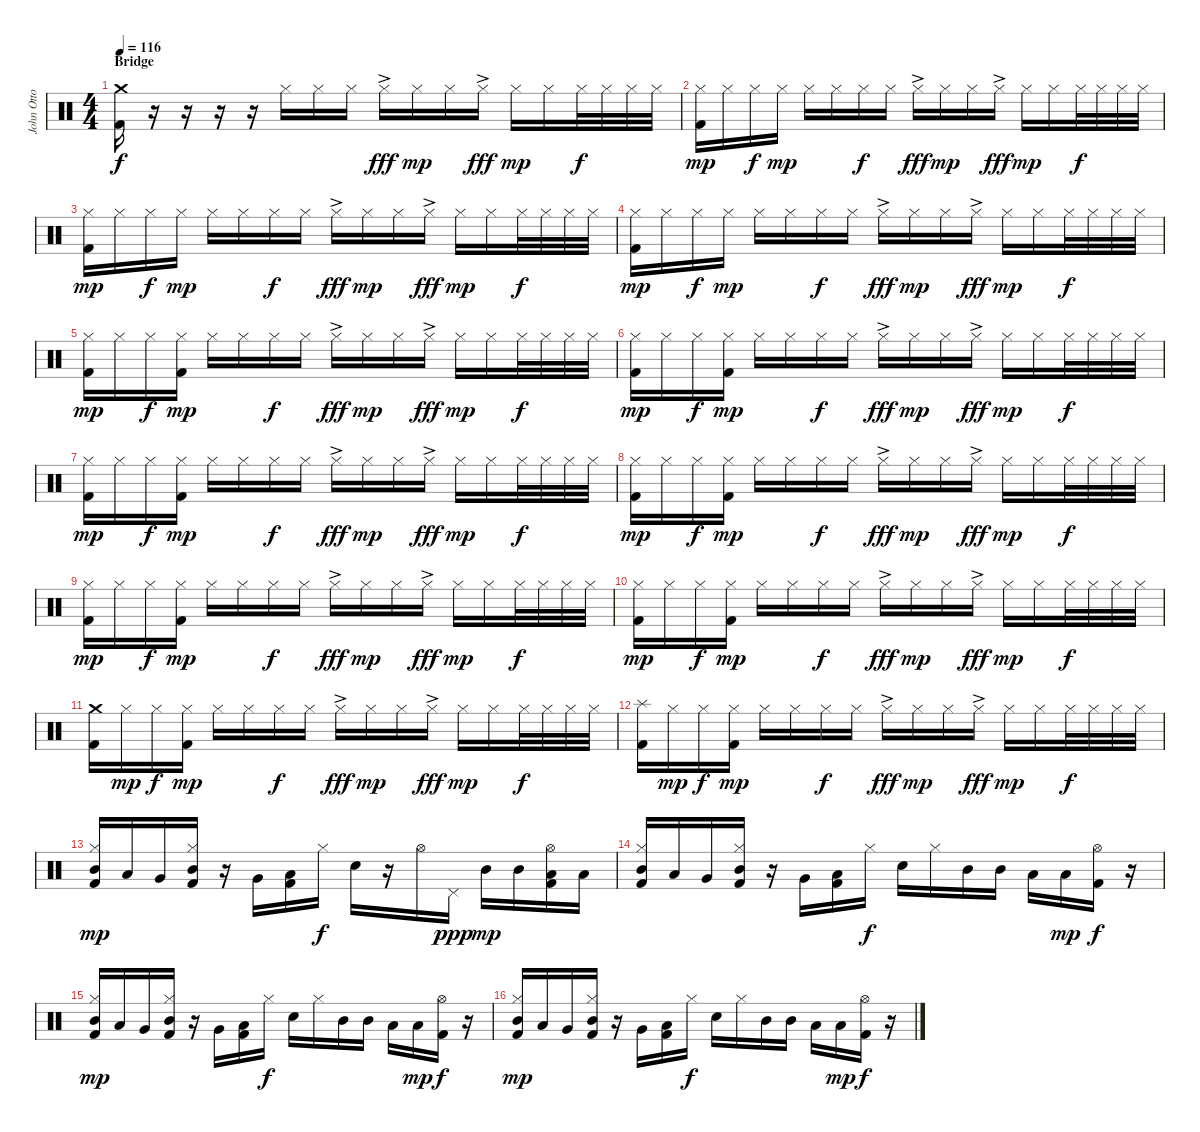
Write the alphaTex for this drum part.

\track ("John Otto - Drums" "John Otto ") {instrument percussion}
\staff {score}
\articulation defaults
\ts (4 4)
\section ("" "Bridge")
\tempo 116
\clef neutral
\ks c
("Crash medium (hit)" "Kick (hit) 2").16{dy f} r.16 r.16 r.16 r.16 "Hi-Hat (closed)".16 "Hi-Hat (closed)".16 "Hi-Hat (closed)".16 "Hi-Hat (closed)"{ac}.16{dy fff} "Hi-Hat (closed)".16{dy mp} "Hi-Hat (closed)".16 "Hi-Hat (closed)"{ac}.16{dy fff} "Hi-Hat (closed)".16{dy mp} "Hi-Hat (closed)".16 "Hi-Hat (closed)".32{dy f} "Hi-Hat (closed)".32 "Hi-Hat (closed)".32 "Hi-Hat (closed)".32 |
("Hi-Hat (closed)" "Kick (hit) 2").16{dy mp} "Hi-Hat (closed)".16 "Hi-Hat (closed)".16{dy f} "Hi-Hat (closed)".16{dy mp} "Hi-Hat (closed)".16 "Hi-Hat (closed)".16 "Hi-Hat (closed)".16{dy f} "Hi-Hat (closed)".16 "Hi-Hat (closed)"{ac}.16{dy fff} "Hi-Hat (closed)".16{dy mp} "Hi-Hat (closed)".16 "Hi-Hat (closed)"{ac}.16{dy fff} "Hi-Hat (closed)".16{dy mp} "Hi-Hat (closed)".16 "Hi-Hat (closed)".32{dy f} "Hi-Hat (closed)".32 "Hi-Hat (closed)".32 "Hi-Hat (closed)".32 |
("Hi-Hat (closed)" "Kick (hit) 2").16{dy mp} "Hi-Hat (closed)".16 "Hi-Hat (closed)".16{dy f} "Hi-Hat (closed)".16{dy mp} "Hi-Hat (closed)".16 "Hi-Hat (closed)".16 "Hi-Hat (closed)".16{dy f} "Hi-Hat (closed)".16 "Hi-Hat (closed)"{ac}.16{dy fff} "Hi-Hat (closed)".16{dy mp} "Hi-Hat (closed)".16 "Hi-Hat (closed)"{ac}.16{dy fff} "Hi-Hat (closed)".16{dy mp} "Hi-Hat (closed)".16 "Hi-Hat (closed)".32{dy f} "Hi-Hat (closed)".32 "Hi-Hat (closed)".32 "Hi-Hat (closed)".32 |
("Hi-Hat (closed)" "Kick (hit) 2").16{dy mp} "Hi-Hat (closed)".16 "Hi-Hat (closed)".16{dy f} "Hi-Hat (closed)".16{dy mp} "Hi-Hat (closed)".16 "Hi-Hat (closed)".16 "Hi-Hat (closed)".16{dy f} "Hi-Hat (closed)".16 "Hi-Hat (closed)"{ac}.16{dy fff} "Hi-Hat (closed)".16{dy mp} "Hi-Hat (closed)".16 "Hi-Hat (closed)"{ac}.16{dy fff} "Hi-Hat (closed)".16{dy mp} "Hi-Hat (closed)".16 "Hi-Hat (closed)".32{dy f} "Hi-Hat (closed)".32 "Hi-Hat (closed)".32 "Hi-Hat (closed)".32 |
("Hi-Hat (closed)" "Kick (hit) 2").16{dy mp} "Hi-Hat (closed)".16 "Hi-Hat (closed)".16{dy f} ("Hi-Hat (closed)" "Kick (hit) 2").16{dy mp} "Hi-Hat (closed)".16 "Hi-Hat (closed)".16 "Hi-Hat (closed)".16{dy f} "Hi-Hat (closed)".16 "Hi-Hat (closed)"{ac}.16{dy fff} "Hi-Hat (closed)".16{dy mp} "Hi-Hat (closed)".16 "Hi-Hat (closed)"{ac}.16{dy fff} "Hi-Hat (closed)".16{dy mp} "Hi-Hat (closed)".16 "Hi-Hat (closed)".32{dy f} "Hi-Hat (closed)".32 "Hi-Hat (closed)".32 "Hi-Hat (closed)".32 |
("Hi-Hat (closed)" "Kick (hit) 2").16{dy mp} "Hi-Hat (closed)".16 "Hi-Hat (closed)".16{dy f} ("Hi-Hat (closed)" "Kick (hit) 2").16{dy mp} "Hi-Hat (closed)".16 "Hi-Hat (closed)".16 "Hi-Hat (closed)".16{dy f} "Hi-Hat (closed)".16 "Hi-Hat (closed)"{ac}.16{dy fff} "Hi-Hat (closed)".16{dy mp} "Hi-Hat (closed)".16 "Hi-Hat (closed)"{ac}.16{dy fff} "Hi-Hat (closed)".16{dy mp} "Hi-Hat (closed)".16 "Hi-Hat (closed)".32{dy f} "Hi-Hat (closed)".32 "Hi-Hat (closed)".32 "Hi-Hat (closed)".32 |
("Hi-Hat (closed)" "Kick (hit) 2").16{dy mp} "Hi-Hat (closed)".16 "Hi-Hat (closed)".16{dy f} ("Hi-Hat (closed)" "Kick (hit) 2").16{dy mp} "Hi-Hat (closed)".16 "Hi-Hat (closed)".16 "Hi-Hat (closed)".16{dy f} "Hi-Hat (closed)".16 "Hi-Hat (closed)"{ac}.16{dy fff} "Hi-Hat (closed)".16{dy mp} "Hi-Hat (closed)".16 "Hi-Hat (closed)"{ac}.16{dy fff} "Hi-Hat (closed)".16{dy mp} "Hi-Hat (closed)".16 "Hi-Hat (closed)".32{dy f} "Hi-Hat (closed)".32 "Hi-Hat (closed)".32 "Hi-Hat (closed)".32 |
("Hi-Hat (closed)" "Kick (hit) 2").16{dy mp} "Hi-Hat (closed)".16 "Hi-Hat (closed)".16{dy f} ("Hi-Hat (closed)" "Kick (hit) 2").16{dy mp} "Hi-Hat (closed)".16 "Hi-Hat (closed)".16 "Hi-Hat (closed)".16{dy f} "Hi-Hat (closed)".16 "Hi-Hat (closed)"{ac}.16{dy fff} "Hi-Hat (closed)".16{dy mp} "Hi-Hat (closed)".16 "Hi-Hat (closed)"{ac}.16{dy fff} "Hi-Hat (closed)".16{dy mp} "Hi-Hat (closed)".16 "Hi-Hat (closed)".32{dy f} "Hi-Hat (closed)".32 "Hi-Hat (closed)".32 "Hi-Hat (closed)".32 |
("Hi-Hat (closed)" "Kick (hit) 2").16{dy mp} "Hi-Hat (closed)".16 "Hi-Hat (closed)".16{dy f} ("Hi-Hat (closed)" "Kick (hit) 2").16{dy mp} "Hi-Hat (closed)".16 "Hi-Hat (closed)".16 "Hi-Hat (closed)".16{dy f} "Hi-Hat (closed)".16 "Hi-Hat (closed)"{ac}.16{dy fff} "Hi-Hat (closed)".16{dy mp} "Hi-Hat (closed)".16 "Hi-Hat (closed)"{ac}.16{dy fff} "Hi-Hat (closed)".16{dy mp} "Hi-Hat (closed)".16 "Hi-Hat (closed)".32{dy f} "Hi-Hat (closed)".32 "Hi-Hat (closed)".32 "Hi-Hat (closed)".32 |
("Hi-Hat (closed)" "Kick (hit) 2").16{dy mp} "Hi-Hat (closed)".16 "Hi-Hat (closed)".16{dy f} ("Hi-Hat (closed)" "Kick (hit) 2").16{dy mp} "Hi-Hat (closed)".16 "Hi-Hat (closed)".16 "Hi-Hat (closed)".16{dy f} "Hi-Hat (closed)".16 "Hi-Hat (closed)"{ac}.16{dy fff} "Hi-Hat (closed)".16{dy mp} "Hi-Hat (closed)".16 "Hi-Hat (closed)"{ac}.16{dy fff} "Hi-Hat (closed)".16{dy mp} "Hi-Hat (closed)".16 "Hi-Hat (closed)".32{dy f} "Hi-Hat (closed)".32 "Hi-Hat (closed)".32 "Hi-Hat (closed)".32 |
("Crash medium (hit)" "Kick (hit) 2").16 "Hi-Hat (closed)".16{dy mp} "Hi-Hat (closed)".16{dy f} ("Hi-Hat (closed)" "Kick (hit) 2").16{dy mp} "Hi-Hat (closed)".16 "Hi-Hat (closed)".16 "Hi-Hat (closed)".16{dy f} "Hi-Hat (closed)".16 "Hi-Hat (closed)"{ac}.16{dy fff} "Hi-Hat (closed)".16{dy mp} "Hi-Hat (closed)".16 "Hi-Hat (closed)"{ac}.16{dy fff} "Hi-Hat (closed)".16{dy mp} "Hi-Hat (closed)".16 "Hi-Hat (closed)".32{dy f} "Hi-Hat (closed)".32 "Hi-Hat (closed)".32 "Hi-Hat (closed)".32 |
("Splash (hit)" "Kick (hit) 2").16 "Hi-Hat (closed)".16{dy mp} "Hi-Hat (closed)".16{dy f} ("Hi-Hat (closed)" "Kick (hit) 2").16{dy mp} "Hi-Hat (closed)".16 "Hi-Hat (closed)".16 "Hi-Hat (closed)".16{dy f} "Hi-Hat (closed)".16 "Hi-Hat (closed)"{ac}.16{dy fff} "Hi-Hat (closed)".16{dy mp} "Hi-Hat (closed)".16 "Hi-Hat (closed)"{ac}.16{dy fff} "Hi-Hat (closed)".16{dy mp} "Hi-Hat (closed)".16 "Hi-Hat (closed)".32{dy f} "Hi-Hat (closed)".32 "Hi-Hat (closed)".32 "Hi-Hat (closed)".32 |
("Hi-Hat (closed)" "Mid Tom (hit)" "Kick (hit) 2").16{dy mp} "Low Tom (hit)".16 "Very Low Tom (hit)".16 ("Hi-Hat (closed)" "Mid Tom (hit)" "Kick (hit) 2").16 r.16 "Very Low Tom (hit)".16 ("Low Tom (hit)" "Kick (hit) 2").16 "Hi-Hat (closed)".16{dy f} "Electric Snare (hit)".16 r.16 "Hi-Hat (open)".16 "Pedal Hi-Hat (hit)".16{dy ppp} "Mid Tom (hit)".16{dy mp} "Mid Tom (hit)".16 ("Hi-Hat (open)" "Low Tom (hit)" "Kick (hit) 2").16 "Low Tom (hit)".16 |
("Hi-Hat (closed)" "Mid Tom (hit)" "Kick (hit) 2").16 "Low Tom (hit)".16 "Very Low Tom (hit)".16 ("Hi-Hat (closed)" "Mid Tom (hit)" "Kick (hit) 2").16 r.16 "Very Low Tom (hit)".16 ("Low Tom (hit)" "Kick (hit) 2").16 "Hi-Hat (closed)".16{dy f} "Electric Snare (hit)".16 "Hi-Hat (closed)".16 "Mid Tom (hit)".16 "Mid Tom (hit)".16 "Low Tom (hit)".16 "Low Tom (hit)".16{dy mp} ("Hi-Hat (open)" "Kick (hit) 2").16{dy f} r.16 |
("Hi-Hat (closed)" "Mid Tom (hit)" "Kick (hit) 2").16{dy mp} "Low Tom (hit)".16 "Very Low Tom (hit)".16 ("Hi-Hat (closed)" "Mid Tom (hit)" "Kick (hit) 2").16 r.16 "Very Low Tom (hit)".16 ("Low Tom (hit)" "Kick (hit) 2").16 "Hi-Hat (closed)".16{dy f} "Electric Snare (hit)".16 "Hi-Hat (closed)".16 "Mid Tom (hit)".16 "Mid Tom (hit)".16 "Low Tom (hit)".16 "Low Tom (hit)".16{dy mp} ("Hi-Hat (open)" "Kick (hit) 2").16{dy f} r.16 |
("Hi-Hat (closed)" "Mid Tom (hit)" "Kick (hit) 2").16{dy mp} "Low Tom (hit)".16 "Very Low Tom (hit)".16 ("Hi-Hat (closed)" "Mid Tom (hit)" "Kick (hit) 2").16 r.16 "Very Low Tom (hit)".16 ("Low Tom (hit)" "Kick (hit) 2").16 "Hi-Hat (closed)".16{dy f} "Electric Snare (hit)".16 "Hi-Hat (closed)".16 "Mid Tom (hit)".16 "Mid Tom (hit)".16 "Low Tom (hit)".16 "Low Tom (hit)".16{dy mp} ("Hi-Hat (open)" "Kick (hit) 2").16{dy f} r.16
